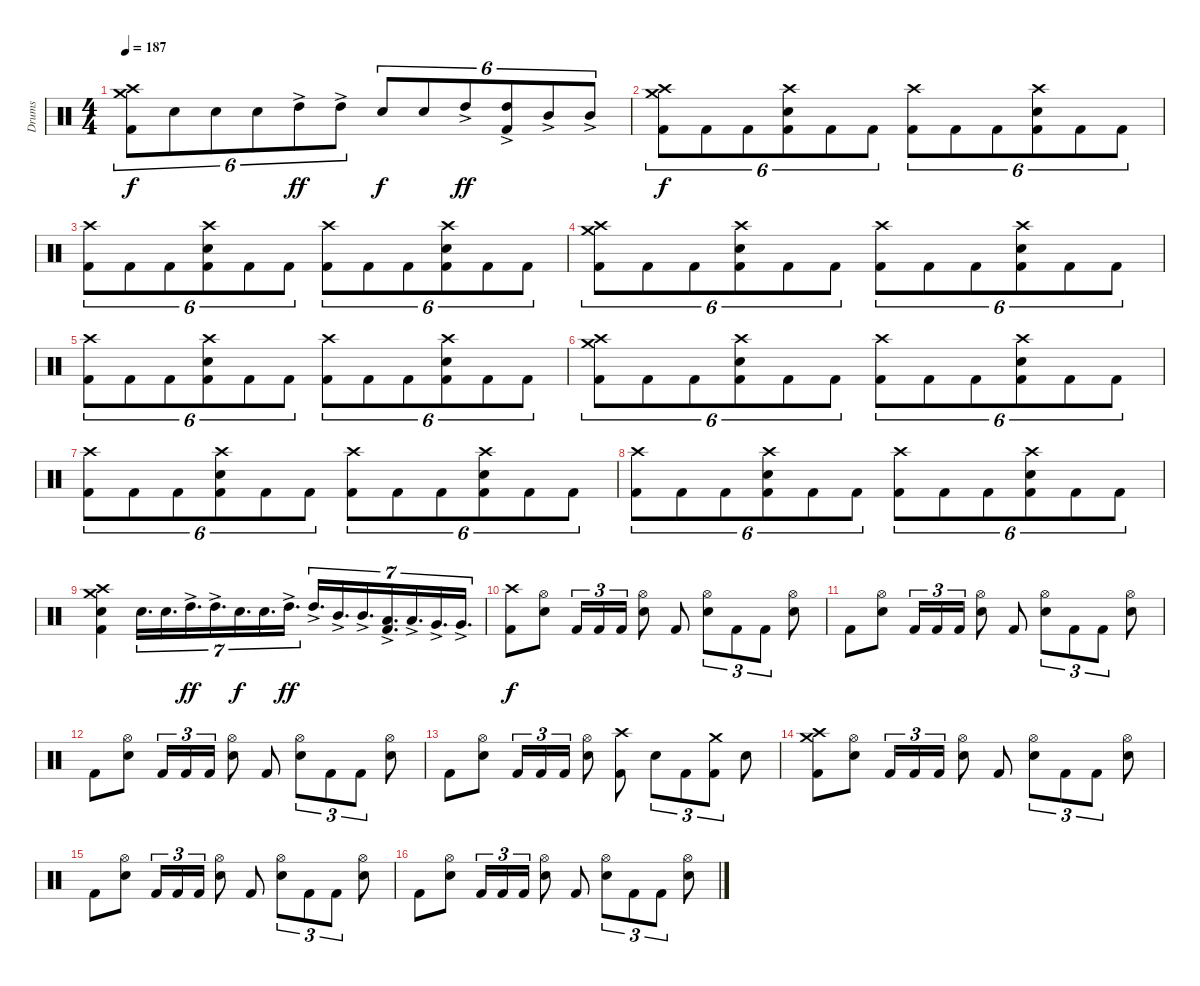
\track ("Drums" "Drums") {instrument percussion}
\staff {score}
\articulation defaults
\ts (4 4)
\tempo 187
\clef neutral
\ks c
("Crash high (hit)" "Crash medium (hit)" "Kick (hit) 2").8{tu (6 4) dy f} "Snare (hit) 2".8{tu (6 4)} "Snare (hit) 2".8{tu (6 4)} "Snare (hit) 2".8{tu (6 4)} "High Tom (hit)"{ac}.8{tu (6 4) dy ff} "High Tom (hit)"{ac}.8{tu (6 4)} "Snare (hit) 2".8{tu (6 4) dy f} "Snare (hit) 2".8{tu (6 4)} "High Tom (hit)"{ac}.8{tu (6 4) dy ff} ("High Tom (hit)"{ac} "Kick (hit) 2").8{tu (6 4)} "Mid Tom (hit)"{ac}.8{tu (6 4)} "Mid Tom (hit)"{ac}.8{tu (6 4)} |
("Crash high (hit)" "Crash medium (hit)" "Kick (hit) 2").8{tu (6 4) dy f} "Kick (hit) 2".8{tu (6 4)} "Kick (hit) 2".8{tu (6 4)} ("Snare (hit) 2" "Crash high (hit)" "Kick (hit) 2").8{tu (6 4)} "Kick (hit) 2".8{tu (6 4)} "Kick (hit) 2".8{tu (6 4)} ("Crash high (hit)" "Kick (hit) 2").8{tu (6 4)} "Kick (hit) 2".8{tu (6 4)} "Kick (hit) 2".8{tu (6 4)} ("Snare (hit) 2" "Crash high (hit)" "Kick (hit) 2").8{tu (6 4)} "Kick (hit) 2".8{tu (6 4)} "Kick (hit) 2".8{tu (6 4)} |
("Crash high (hit)" "Kick (hit) 2").8{tu (6 4)} "Kick (hit) 2".8{tu (6 4)} "Kick (hit) 2".8{tu (6 4)} ("Snare (hit) 2" "Crash high (hit)" "Kick (hit) 2").8{tu (6 4)} "Kick (hit) 2".8{tu (6 4)} "Kick (hit) 2".8{tu (6 4)} ("Crash high (hit)" "Kick (hit) 2").8{tu (6 4)} "Kick (hit) 2".8{tu (6 4)} "Kick (hit) 2".8{tu (6 4)} ("Snare (hit) 2" "Crash high (hit)" "Kick (hit) 2").8{tu (6 4)} "Kick (hit) 2".8{tu (6 4)} "Kick (hit) 2".8{tu (6 4)} |
("Crash high (hit)" "Crash medium (hit)" "Kick (hit) 2").8{tu (6 4)} "Kick (hit) 2".8{tu (6 4)} "Kick (hit) 2".8{tu (6 4)} ("Snare (hit) 2" "Crash high (hit)" "Kick (hit) 2").8{tu (6 4)} "Kick (hit) 2".8{tu (6 4)} "Kick (hit) 2".8{tu (6 4)} ("Crash high (hit)" "Kick (hit) 2").8{tu (6 4)} "Kick (hit) 2".8{tu (6 4)} "Kick (hit) 2".8{tu (6 4)} ("Snare (hit) 2" "Crash high (hit)" "Kick (hit) 2").8{tu (6 4)} "Kick (hit) 2".8{tu (6 4)} "Kick (hit) 2".8{tu (6 4)} |
("Crash high (hit)" "Kick (hit) 2").8{tu (6 4)} "Kick (hit) 2".8{tu (6 4)} "Kick (hit) 2".8{tu (6 4)} ("Snare (hit) 2" "Crash high (hit)" "Kick (hit) 2").8{tu (6 4)} "Kick (hit) 2".8{tu (6 4)} "Kick (hit) 2".8{tu (6 4)} ("Crash high (hit)" "Kick (hit) 2").8{tu (6 4)} "Kick (hit) 2".8{tu (6 4)} "Kick (hit) 2".8{tu (6 4)} ("Snare (hit) 2" "Crash high (hit)" "Kick (hit) 2").8{tu (6 4)} "Kick (hit) 2".8{tu (6 4)} "Kick (hit) 2".8{tu (6 4)} |
("Crash high (hit)" "Crash medium (hit)" "Kick (hit) 2").8{tu (6 4)} "Kick (hit) 2".8{tu (6 4)} "Kick (hit) 2".8{tu (6 4)} ("Snare (hit) 2" "Crash high (hit)" "Kick (hit) 2").8{tu (6 4)} "Kick (hit) 2".8{tu (6 4)} "Kick (hit) 2".8{tu (6 4)} ("Crash high (hit)" "Kick (hit) 2").8{tu (6 4)} "Kick (hit) 2".8{tu (6 4)} "Kick (hit) 2".8{tu (6 4)} ("Snare (hit) 2" "Crash high (hit)" "Kick (hit) 2").8{tu (6 4)} "Kick (hit) 2".8{tu (6 4)} "Kick (hit) 2".8{tu (6 4)} |
("Crash high (hit)" "Kick (hit) 2").8{tu (6 4)} "Kick (hit) 2".8{tu (6 4)} "Kick (hit) 2".8{tu (6 4)} ("Snare (hit) 2" "Crash high (hit)" "Kick (hit) 2").8{tu (6 4)} "Kick (hit) 2".8{tu (6 4)} "Kick (hit) 2".8{tu (6 4)} ("Crash high (hit)" "Kick (hit) 2").8{tu (6 4)} "Kick (hit) 2".8{tu (6 4)} "Kick (hit) 2".8{tu (6 4)} ("Snare (hit) 2" "Crash high (hit)" "Kick (hit) 2").8{tu (6 4)} "Kick (hit) 2".8{tu (6 4)} "Kick (hit) 2".8{tu (6 4)} |
("Crash high (hit)" "Kick (hit) 2").8{tu (6 4)} "Kick (hit) 2".8{tu (6 4)} "Kick (hit) 2".8{tu (6 4)} ("Snare (hit) 2" "Crash high (hit)" "Kick (hit) 2").8{tu (6 4)} "Kick (hit) 2".8{tu (6 4)} "Kick (hit) 2".8{tu (6 4)} ("Crash high (hit)" "Kick (hit) 2").8{tu (6 4)} "Kick (hit) 2".8{tu (6 4)} "Kick (hit) 2".8{tu (6 4)} ("Snare (hit) 2" "Crash high (hit)" "Kick (hit) 2").8{tu (6 4)} "Kick (hit) 2".8{tu (6 4)} "Kick (hit) 2".8{tu (6 4)} |
("Crash high (hit)" "Crash medium (hit)" "Kick (hit) 2" "Snare (hit) 2").4 "Snare (hit) 2".16{d tu (7 4)} "Snare (hit) 2".16{d tu (7 4)} "High Tom (hit)"{ac}.16{d tu (7 4) dy ff} "High Tom (hit)"{ac}.16{d tu (7 4)} "Snare (hit) 2".16{d tu (7 4) dy f} "Snare (hit) 2".16{d tu (7 4)} "High Tom (hit)"{ac}.16{d tu (7 4) dy ff} "High Tom (hit)"{ac}.16{d tu (7 4)} "Mid Tom (hit)"{ac}.16{d tu (7 4)} "Mid Tom (hit)"{ac}.16{d tu (7 4)} ("Kick (hit) 2" "Low Tom (hit)"{ac}).16{d tu (7 4)} "Low Tom (hit)"{ac}.16{d tu (7 4)} "Very Low Tom (hit)"{ac}.16{d tu (7 4)} "Very Low Tom (hit)"{ac}.16{d tu (7 4)} |
("Crash high (hit)" "Kick (hit) 2").8{dy f} ("Snare (hit) 2" "Hi-Hat (open)").8 "Kick (hit) 2".16{tu (3 2)} "Kick (hit) 2".16{tu (3 2)} "Kick (hit) 2".16{tu (3 2)} ("Hi-Hat (open)" "Snare (hit) 2").8 "Kick (hit) 2".8 ("Hi-Hat (open)" "Snare (hit) 2").8{tu (3 2)} "Kick (hit) 2".8{tu (3 2)} "Kick (hit) 2".8{tu (3 2)} ("Snare (hit) 2" "Hi-Hat (open)").8 |
"Kick (hit) 2".8 ("Snare (hit) 2" "Hi-Hat (open)").8 "Kick (hit) 2".16{tu (3 2)} "Kick (hit) 2".16{tu (3 2)} "Kick (hit) 2".16{tu (3 2)} ("Hi-Hat (open)" "Snare (hit) 2").8 "Kick (hit) 2".8 ("Hi-Hat (open)" "Snare (hit) 2").8{tu (3 2)} "Kick (hit) 2".8{tu (3 2)} "Kick (hit) 2".8{tu (3 2)} ("Hi-Hat (open)" "Snare (hit) 2").8 |
"Kick (hit) 2".8 ("Snare (hit) 2" "Hi-Hat (open)").8 "Kick (hit) 2".16{tu (3 2)} "Kick (hit) 2".16{tu (3 2)} "Kick (hit) 2".16{tu (3 2)} ("Hi-Hat (open)" "Snare (hit) 2").8 "Kick (hit) 2".8 ("Hi-Hat (open)" "Snare (hit) 2").8{tu (3 2)} "Kick (hit) 2".8{tu (3 2)} "Kick (hit) 2".8{tu (3 2)} ("Snare (hit) 2" "Hi-Hat (open)").8 |
"Kick (hit) 2".8 ("Snare (hit) 2" "Hi-Hat (open)").8 "Kick (hit) 2".16{tu (3 2)} "Kick (hit) 2".16{tu (3 2)} "Kick (hit) 2".16{tu (3 2)} ("Hi-Hat (open)" "Snare (hit) 2").8 ("Kick (hit) 2" "Crash high (hit)").8 "Snare (hit) 2".8{tu (3 2)} "Kick (hit) 2".8{tu (3 2)} ("Kick (hit) 2" "Crash medium (hit)").8{tu (3 2)} "Snare (hit) 2".8 |
("Crash high (hit)" "Kick (hit) 2" "Crash medium (hit)").8 ("Snare (hit) 2" "Hi-Hat (open)").8 "Kick (hit) 2".16{tu (3 2)} "Kick (hit) 2".16{tu (3 2)} "Kick (hit) 2".16{tu (3 2)} ("Hi-Hat (open)" "Snare (hit) 2").8 "Kick (hit) 2".8 ("Hi-Hat (open)" "Snare (hit) 2").8{tu (3 2)} "Kick (hit) 2".8{tu (3 2)} "Kick (hit) 2".8{tu (3 2)} ("Snare (hit) 2" "Hi-Hat (open)").8 |
"Kick (hit) 2".8 ("Snare (hit) 2" "Hi-Hat (open)").8 "Kick (hit) 2".16{tu (3 2)} "Kick (hit) 2".16{tu (3 2)} "Kick (hit) 2".16{tu (3 2)} ("Hi-Hat (open)" "Snare (hit) 2").8 "Kick (hit) 2".8 ("Hi-Hat (open)" "Snare (hit) 2").8{tu (3 2)} "Kick (hit) 2".8{tu (3 2)} "Kick (hit) 2".8{tu (3 2)} ("Hi-Hat (open)" "Snare (hit) 2").8 |
"Kick (hit) 2".8 ("Snare (hit) 2" "Hi-Hat (open)").8 "Kick (hit) 2".16{tu (3 2)} "Kick (hit) 2".16{tu (3 2)} "Kick (hit) 2".16{tu (3 2)} ("Hi-Hat (open)" "Snare (hit) 2").8 "Kick (hit) 2".8 ("Hi-Hat (open)" "Snare (hit) 2").8{tu (3 2)} "Kick (hit) 2".8{tu (3 2)} "Kick (hit) 2".8{tu (3 2)} ("Snare (hit) 2" "Hi-Hat (open)").8
